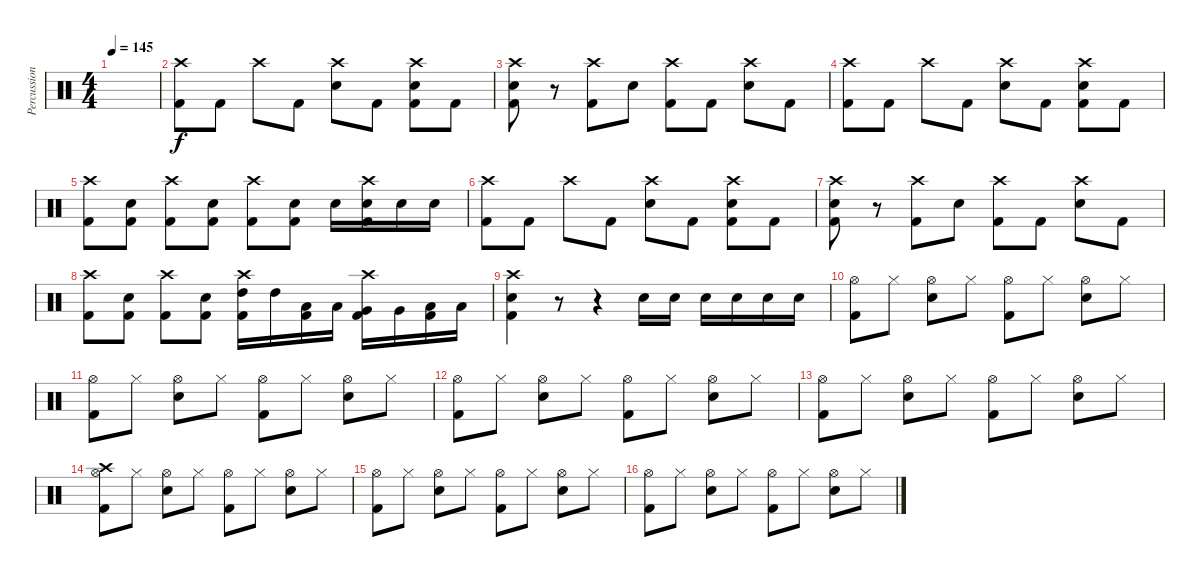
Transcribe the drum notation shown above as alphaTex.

\track ("Percussion" "Percussion") {instrument percussion bank 1}
\staff {score}
\articulation defaults
\ts (4 4)
\tempo 145
\clef neutral
\ks c
|
("Crash high (hit)" "Kick (hit) 2").8 "Kick (hit) 2".8 "Crash high (hit)".8 "Kick (hit) 2".8 ("Crash high (hit)" "Electric Snare (hit)").8 "Kick (hit) 2".8 ("Crash high (hit)" "Electric Snare (hit)" "Kick (hit) 2").8 "Kick (hit) 2".8 |
("Crash high (hit)" "Electric Snare (hit)" "Kick (hit) 2").8 r.8 ("Crash high (hit)" "Kick (hit) 2").8 "Electric Snare (hit)".8 ("Crash high (hit)" "Kick (hit) 2").8 "Kick (hit) 2".8 ("Crash high (hit)" "Electric Snare (hit)").8 "Kick (hit) 2".8 |
("Crash high (hit)" "Kick (hit) 2").8 "Kick (hit) 2".8 "Crash high (hit)".8 "Kick (hit) 2".8 ("Crash high (hit)" "Electric Snare (hit)").8 "Kick (hit) 2".8 ("Crash high (hit)" "Electric Snare (hit)" "Kick (hit) 2").8 "Kick (hit) 2".8 |
("Crash high (hit)" "Kick (hit) 2").8 ("Electric Snare (hit)" "Kick (hit) 2").8 ("Crash high (hit)" "Kick (hit) 2").8 ("Electric Snare (hit)" "Kick (hit) 2").8 ("Crash high (hit)" "Kick (hit) 2").8 ("Electric Snare (hit)" "Kick (hit) 2").8 "Electric Snare (hit)".16 ("Crash high (hit)" "Electric Snare (hit)" "Kick (hit) 2").16 "Electric Snare (hit)".16 "Electric Snare (hit)".16 |
("Crash high (hit)" "Kick (hit) 2").8 "Kick (hit) 2".8 "Crash high (hit)".8 "Kick (hit) 2".8 ("Crash high (hit)" "Electric Snare (hit)").8 "Kick (hit) 2".8 ("Crash high (hit)" "Electric Snare (hit)" "Kick (hit) 2").8 "Kick (hit) 2".8 |
("Crash high (hit)" "Electric Snare (hit)" "Kick (hit) 2").8 r.8 ("Crash high (hit)" "Kick (hit) 2").8 "Electric Snare (hit)".8 ("Crash high (hit)" "Kick (hit) 2").8 "Kick (hit) 2".8 ("Crash high (hit)" "Electric Snare (hit)").8 "Kick (hit) 2".8 |
("Crash high (hit)" "Kick (hit) 2").8 ("Electric Snare (hit)" "Kick (hit) 2").8 ("Crash high (hit)" "Kick (hit) 2").8 ("Electric Snare (hit)" "Kick (hit) 2").8 ("Crash high (hit)" "High Tom (hit)" "Kick (hit) 2").16 "High Tom (hit)".16 ("Low Tom (hit)" "Kick (hit) 2").16 "Low Tom (hit)".16 ("Crash high (hit)" "Very Low Tom (hit)" "Kick (hit) 2").16 "Very Low Tom (hit)".16 ("Low Floor Tom (hit)" "Kick (hit) 2").16 "Low Floor Tom (hit)".16 |
("Crash high (hit)" "Electric Snare (hit)" "Kick (hit) 2").4 r.8 r.4 "Electric Snare (hit)".16 "Electric Snare (hit)".16 "Electric Snare (hit)".16 "Electric Snare (hit)".16 "Electric Snare (hit)".16 "Electric Snare (hit)".16 |
("Kick (hit) 2" "Hi-Hat (open)").8 "Hi-Hat (closed)".8 ("Electric Snare (hit)" "Hi-Hat (open)").8 "Hi-Hat (closed)".8 ("Kick (hit) 2" "Hi-Hat (open)").8 "Hi-Hat (closed)".8 ("Electric Snare (hit)" "Hi-Hat (open)").8 "Hi-Hat (closed)".8 |
("Kick (hit) 2" "Hi-Hat (open)").8 "Hi-Hat (closed)".8 ("Electric Snare (hit)" "Hi-Hat (open)").8 "Hi-Hat (closed)".8 ("Kick (hit) 2" "Hi-Hat (open)").8 "Hi-Hat (closed)".8 ("Electric Snare (hit)" "Hi-Hat (open)").8 "Hi-Hat (closed)".8 |
("Kick (hit) 2" "Hi-Hat (open)").8 "Hi-Hat (closed)".8 ("Electric Snare (hit)" "Hi-Hat (open)").8 "Hi-Hat (closed)".8 ("Kick (hit) 2" "Hi-Hat (open)").8 "Hi-Hat (closed)".8 ("Electric Snare (hit)" "Hi-Hat (open)").8 "Hi-Hat (closed)".8 |
("Kick (hit) 2" "Hi-Hat (open)").8 "Hi-Hat (closed)".8 ("Electric Snare (hit)" "Hi-Hat (open)").8 "Hi-Hat (closed)".8 ("Kick (hit) 2" "Hi-Hat (open)").8 "Hi-Hat (closed)".8 ("Electric Snare (hit)" "Hi-Hat (open)").8 "Hi-Hat (closed)".8 |
("Kick (hit) 2" "Crash high (hit)" "Hi-Hat (open)").8 "Hi-Hat (closed)".8 ("Electric Snare (hit)" "Hi-Hat (open)").8 "Hi-Hat (closed)".8 ("Kick (hit) 2" "Hi-Hat (open)").8 "Hi-Hat (closed)".8 ("Electric Snare (hit)" "Hi-Hat (open)").8 "Hi-Hat (closed)".8 |
("Kick (hit) 2" "Hi-Hat (open)").8 "Hi-Hat (closed)".8 ("Electric Snare (hit)" "Hi-Hat (open)").8 "Hi-Hat (closed)".8 ("Kick (hit) 2" "Hi-Hat (open)").8 "Hi-Hat (closed)".8 ("Electric Snare (hit)" "Hi-Hat (open)").8 "Hi-Hat (closed)".8 |
("Kick (hit) 2" "Hi-Hat (open)").8 "Hi-Hat (closed)".8 ("Electric Snare (hit)" "Hi-Hat (open)").8 "Hi-Hat (closed)".8 ("Kick (hit) 2" "Hi-Hat (open)").8 "Hi-Hat (closed)".8 ("Electric Snare (hit)" "Hi-Hat (open)").8 "Hi-Hat (closed)".8
